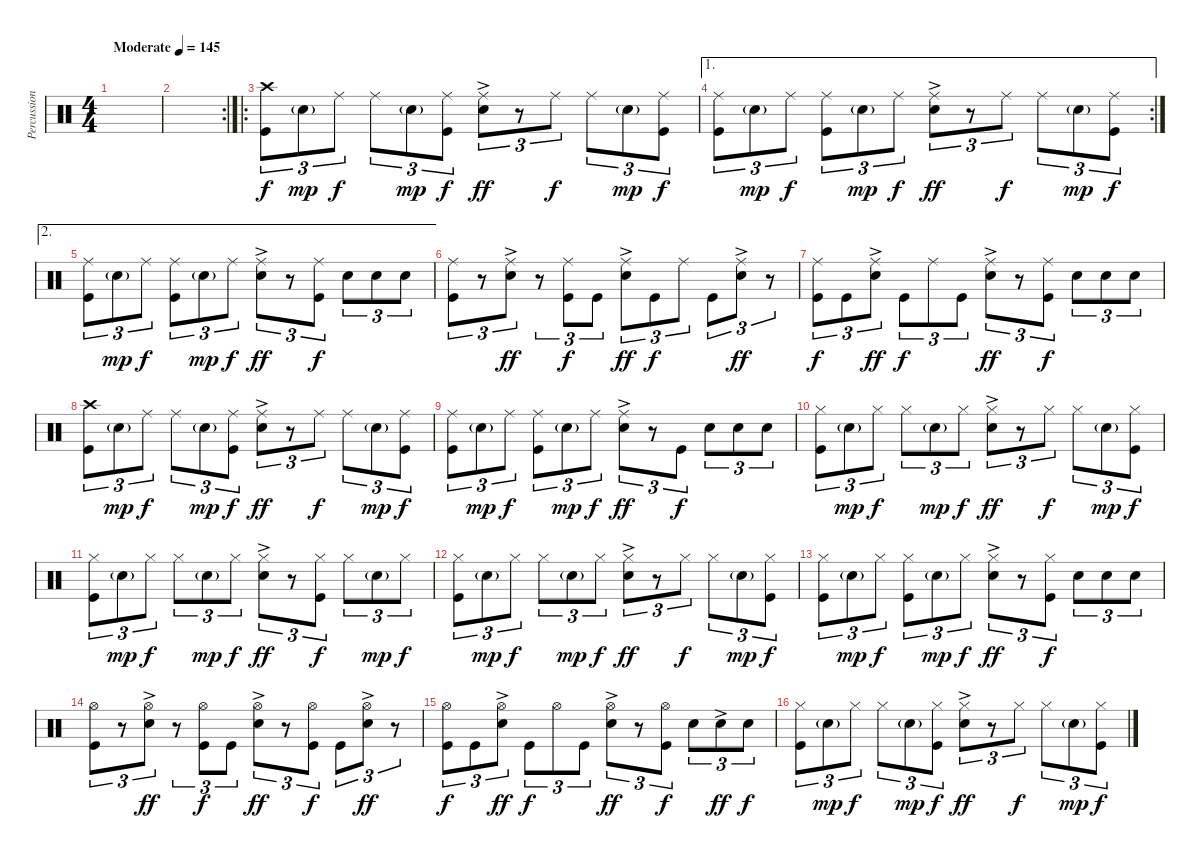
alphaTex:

\track ("Percussion" "Percussion") {instrument percussion}
\staff {score}
\articulation defaults
\ts (4 4)
\tempo (145 "Moderate")
\clef neutral
\ks c
|
\rc 2
|
\ro
("Crash high (hit)" "Kick (hit)").8{tu (3 2)} "Electric Snare (hit)"{g}.8{tu (3 2) dy mp} "Ride (middle)".8{tu (3 2) dy f} "Ride (middle)".8{tu (3 2)} "Electric Snare (hit)"{g}.8{tu (3 2) dy mp} ("Ride (middle)" "Kick (hit)").8{tu (3 2) dy f} ("Ride (middle)" "Electric Snare (hit)"{ac}).8{tu (3 2) dy ff} r.8{tu (3 2)} "Ride (middle)".8{tu (3 2) dy f} "Ride (middle)".8{tu (3 2)} "Electric Snare (hit)"{g}.8{tu (3 2) dy mp} ("Ride (middle)" "Kick (hit)").8{tu (3 2) dy f} |
\ae 1
\rc 2
("Ride (middle)" "Kick (hit)").8{tu (3 2)} "Electric Snare (hit)"{g}.8{tu (3 2) dy mp} "Ride (middle)".8{tu (3 2) dy f} ("Ride (middle)" "Kick (hit)").8{tu (3 2)} "Electric Snare (hit)"{g}.8{tu (3 2) dy mp} "Ride (middle)".8{tu (3 2) dy f} ("Ride (middle)" "Electric Snare (hit)"{ac}).8{tu (3 2) dy ff} r.8{tu (3 2)} "Ride (middle)".8{tu (3 2) dy f} "Ride (middle)".8{tu (3 2)} "Electric Snare (hit)"{g}.8{tu (3 2) dy mp} ("Ride (middle)" "Kick (hit)").8{tu (3 2) dy f} |
\ae 2
("Ride (middle)" "Kick (hit)").8{tu (3 2)} "Electric Snare (hit)"{g}.8{tu (3 2) dy mp} "Ride (middle)".8{tu (3 2) dy f} ("Ride (middle)" "Kick (hit)").8{tu (3 2)} "Electric Snare (hit)"{g}.8{tu (3 2) dy mp} "Ride (middle)".8{tu (3 2) dy f} ("Ride (middle)" "Electric Snare (hit)"{ac}).8{tu (3 2) dy ff} r.8{tu (3 2)} ("Ride (middle)" "Kick (hit)").8{tu (3 2) dy f} "Electric Snare (hit)".8{tu (3 2)} "Electric Snare (hit)".8{tu (3 2)} "Electric Snare (hit)".8{tu (3 2)} |
("Ride (middle)" "Kick (hit)").8{tu (3 2)} r.8{tu (3 2)} ("Ride (middle)" "Electric Snare (hit)"{ac}).8{tu (3 2) dy ff} r.8{tu (3 2)} ("Ride (middle)" "Kick (hit)").8{tu (3 2) dy f} "Kick (hit)".8{tu (3 2)} ("Ride (middle)" "Electric Snare (hit)"{ac}).8{tu (3 2) dy ff} "Kick (hit)".8{tu (3 2) dy f} "Ride (middle)".8{tu (3 2)} "Kick (hit)".8{tu (3 2)} ("Ride (middle)" "Electric Snare (hit)"{ac}).8{tu (3 2) dy ff} r.8{tu (3 2)} |
("Ride (middle)" "Kick (hit)").8{tu (3 2) dy f} "Kick (hit)".8{tu (3 2)} ("Ride (middle)" "Electric Snare (hit)"{ac}).8{tu (3 2) dy ff} "Kick (hit)".8{tu (3 2) dy f} "Ride (middle)".8{tu (3 2)} "Kick (hit)".8{tu (3 2)} ("Ride (middle)" "Electric Snare (hit)"{ac}).8{tu (3 2) dy ff} r.8{tu (3 2)} ("Ride (middle)" "Kick (hit)").8{tu (3 2) dy f} "Electric Snare (hit)".8{tu (3 2)} "Electric Snare (hit)".8{tu (3 2)} "Electric Snare (hit)".8{tu (3 2)} |
("Crash high (hit)" "Kick (hit)").8{tu (3 2)} "Electric Snare (hit)"{g}.8{tu (3 2) dy mp} "Ride (middle)".8{tu (3 2) dy f} "Ride (middle)".8{tu (3 2)} "Electric Snare (hit)"{g}.8{tu (3 2) dy mp} ("Ride (middle)" "Kick (hit)").8{tu (3 2) dy f} ("Ride (middle)" "Electric Snare (hit)"{ac}).8{tu (3 2) dy ff} r.8{tu (3 2)} "Ride (middle)".8{tu (3 2) dy f} "Ride (middle)".8{tu (3 2)} "Electric Snare (hit)"{g}.8{tu (3 2) dy mp} ("Ride (middle)" "Kick (hit)").8{tu (3 2) dy f} |
("Ride (middle)" "Kick (hit)").8{tu (3 2)} "Electric Snare (hit)"{g}.8{tu (3 2) dy mp} "Ride (middle)".8{tu (3 2) dy f} ("Ride (middle)" "Kick (hit)").8{tu (3 2)} "Electric Snare (hit)"{g}.8{tu (3 2) dy mp} "Ride (middle)".8{tu (3 2) dy f} ("Ride (middle)" "Electric Snare (hit)"{ac}).8{tu (3 2) dy ff} r.8{tu (3 2)} "Kick (hit)".8{tu (3 2) dy f} "Electric Snare (hit)".8{tu (3 2)} "Electric Snare (hit)".8{tu (3 2)} "Electric Snare (hit)".8{tu (3 2)} |
("Hi-Hat (closed)" "Kick (hit)").8{tu (3 2)} "Electric Snare (hit)"{g}.8{tu (3 2) dy mp} "Hi-Hat (closed)".8{tu (3 2) dy f} "Hi-Hat (closed)".8{tu (3 2)} "Electric Snare (hit)"{g}.8{tu (3 2) dy mp} "Hi-Hat (closed)".8{tu (3 2) dy f} ("Hi-Hat (closed)" "Electric Snare (hit)"{ac}).8{tu (3 2) dy ff} r.8{tu (3 2)} "Hi-Hat (closed)".8{tu (3 2) dy f} "Hi-Hat (closed)".8{tu (3 2)} "Electric Snare (hit)"{g}.8{tu (3 2) dy mp} ("Hi-Hat (closed)" "Kick (hit)").8{tu (3 2) dy f} |
("Hi-Hat (closed)" "Kick (hit)").8{tu (3 2)} "Electric Snare (hit)"{g}.8{tu (3 2) dy mp} "Hi-Hat (closed)".8{tu (3 2) dy f} "Hi-Hat (closed)".8{tu (3 2)} "Electric Snare (hit)"{g}.8{tu (3 2) dy mp} "Hi-Hat (closed)".8{tu (3 2) dy f} ("Hi-Hat (closed)" "Electric Snare (hit)"{ac}).8{tu (3 2) dy ff} r.8{tu (3 2)} ("Hi-Hat (closed)" "Kick (hit)").8{tu (3 2) dy f} "Hi-Hat (closed)".8{tu (3 2)} "Electric Snare (hit)"{g}.8{tu (3 2) dy mp} "Hi-Hat (closed)".8{tu (3 2) dy f} |
("Hi-Hat (closed)" "Kick (hit)").8{tu (3 2)} "Electric Snare (hit)"{g}.8{tu (3 2) dy mp} "Hi-Hat (closed)".8{tu (3 2) dy f} "Hi-Hat (closed)".8{tu (3 2)} "Electric Snare (hit)"{g}.8{tu (3 2) dy mp} "Hi-Hat (closed)".8{tu (3 2) dy f} ("Hi-Hat (closed)" "Electric Snare (hit)"{ac}).8{tu (3 2) dy ff} r.8{tu (3 2)} "Hi-Hat (closed)".8{tu (3 2) dy f} "Hi-Hat (closed)".8{tu (3 2)} "Electric Snare (hit)"{g}.8{tu (3 2) dy mp} ("Hi-Hat (closed)" "Kick (hit)").8{tu (3 2) dy f} |
("Hi-Hat (closed)" "Kick (hit)").8{tu (3 2)} "Electric Snare (hit)"{g}.8{tu (3 2) dy mp} "Hi-Hat (closed)".8{tu (3 2) dy f} ("Hi-Hat (closed)" "Kick (hit)").8{tu (3 2)} "Electric Snare (hit)"{g}.8{tu (3 2) dy mp} "Hi-Hat (closed)".8{tu (3 2) dy f} ("Hi-Hat (closed)" "Electric Snare (hit)"{ac}).8{tu (3 2) dy ff} r.8{tu (3 2)} ("Hi-Hat (closed)" "Kick (hit)").8{tu (3 2) dy f} "Electric Snare (hit)".8{tu (3 2)} "Electric Snare (hit)".8{tu (3 2)} "Electric Snare (hit)".8{tu (3 2)} |
("Hi-Hat (open)" "Kick (hit)").8{tu (3 2)} r.8{tu (3 2)} ("Hi-Hat (open)" "Electric Snare (hit)"{ac}).8{tu (3 2) dy ff} r.8{tu (3 2)} ("Hi-Hat (open)" "Kick (hit)").8{tu (3 2) dy f} "Kick (hit)".8{tu (3 2)} ("Hi-Hat (open)" "Electric Snare (hit)"{ac}).8{tu (3 2) dy ff} r.8{tu (3 2)} ("Hi-Hat (open)" "Kick (hit)").8{tu (3 2) dy f} "Kick (hit)".8{tu (3 2)} ("Hi-Hat (open)" "Electric Snare (hit)"{ac}).8{tu (3 2) dy ff} r.8{tu (3 2)} |
("Hi-Hat (open)" "Kick (hit)").8{tu (3 2) dy f} "Kick (hit)".8{tu (3 2)} ("Hi-Hat (open)" "Electric Snare (hit)"{ac}).8{tu (3 2) dy ff} "Kick (hit)".8{tu (3 2) dy f} "Hi-Hat (open)".8{tu (3 2)} "Kick (hit)".8{tu (3 2)} ("Hi-Hat (open)" "Electric Snare (hit)"{ac}).8{tu (3 2) dy ff} r.8{tu (3 2)} ("Hi-Hat (open)" "Kick (hit)").8{tu (3 2) dy f} "Electric Snare (hit)".8{tu (3 2)} "Electric Snare (hit)"{ac}.8{tu (3 2) dy ff} "Electric Snare (hit)".8{tu (3 2) dy f} |
("Hi-Hat (closed)" "Kick (hit)").8{tu (3 2)} "Electric Snare (hit)"{g}.8{tu (3 2) dy mp} "Hi-Hat (closed)".8{tu (3 2) dy f} "Hi-Hat (closed)".8{tu (3 2)} "Electric Snare (hit)"{g}.8{tu (3 2) dy mp} ("Hi-Hat (closed)" "Kick (hit)").8{tu (3 2) dy f} ("Hi-Hat (closed)" "Electric Snare (hit)"{ac}).8{tu (3 2) dy ff} r.8{tu (3 2)} "Hi-Hat (closed)".8{tu (3 2) dy f} "Hi-Hat (closed)".8{tu (3 2)} "Electric Snare (hit)"{g}.8{tu (3 2) dy mp} ("Hi-Hat (closed)" "Kick (hit)").8{tu (3 2) dy f}
